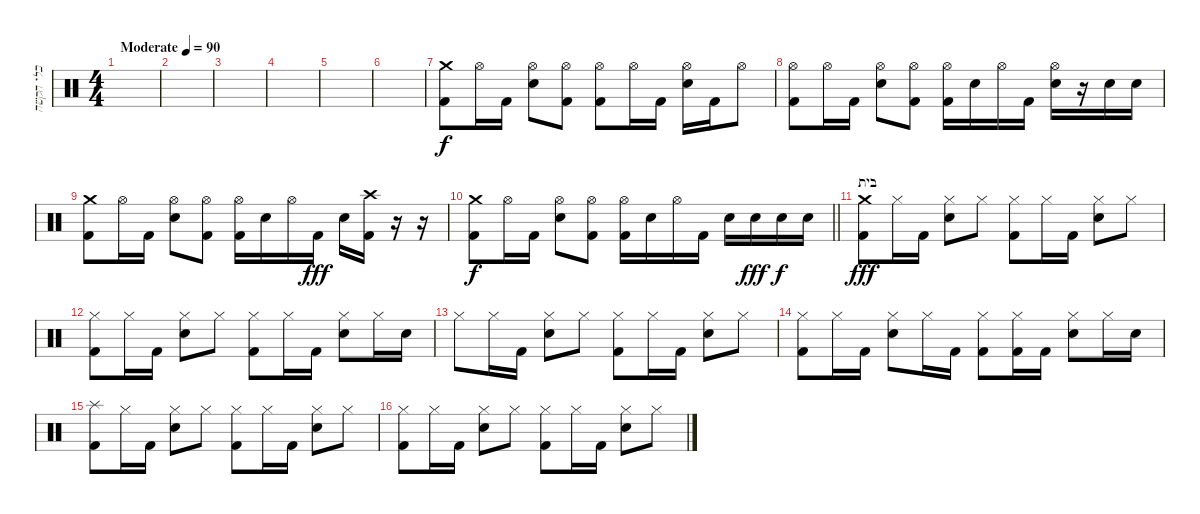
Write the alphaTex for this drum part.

\track ("כלי הקשה" "כלי הקשה") {instrument percussion}
\staff {score}
\articulation defaults
\ts (4 4)
\tempo (90 "Moderate")
\clef neutral
\ks c
|
|
|
|
|
|
("Crash medium (hit)" "Kick (hit) 2").8 "Hi-Hat (open)".16 "Kick (hit) 2".16 ("Hi-Hat (open)" "Electric Snare (hit)").8 ("Hi-Hat (open)" "Kick (hit) 2").8 ("Hi-Hat (open)" "Kick (hit) 2").8 "Hi-Hat (open)".16 "Kick (hit) 2".16 ("Hi-Hat (open)" "Electric Snare (hit)").16 "Kick (hit) 2".16 "Hi-Hat (open)".8 |
("Hi-Hat (open)" "Kick (hit) 2").8 "Hi-Hat (open)".16 "Kick (hit) 2".16 ("Hi-Hat (open)" "Electric Snare (hit)").8 ("Hi-Hat (open)" "Kick (hit) 2").8 ("Hi-Hat (open)" "Kick (hit) 2").16 "Electric Snare (hit)".16 "Hi-Hat (open)".16 "Kick (hit) 2".16 ("Hi-Hat (open)" "Electric Snare (hit)").16 r.16 "Electric Snare (hit)".16 "Electric Snare (hit)".16 |
("Crash medium (hit)" "Kick (hit) 2").8 "Hi-Hat (open)".16 "Kick (hit) 2".16 ("Hi-Hat (open)" "Electric Snare (hit)").8 ("Hi-Hat (open)" "Kick (hit) 2").8 ("Hi-Hat (open)" "Kick (hit) 2").16 "Electric Snare (hit)".16 "Hi-Hat (open)".16 "Kick (hit) 2".16{dy fff} "Electric Snare (hit)".16 ("Crash high (hit)" "Kick (hit) 2").16 r.16 r.16 |
\barLineRight lightlight
("Crash medium (hit)" "Kick (hit) 2").8{dy f} "Hi-Hat (open)".16 "Kick (hit) 2".16 ("Hi-Hat (open)" "Electric Snare (hit)").8 ("Hi-Hat (open)" "Kick (hit) 2").8 ("Hi-Hat (open)" "Kick (hit) 2").16 "Electric Snare (hit)".16 "Hi-Hat (open)".16 "Kick (hit) 2".16 "Electric Snare (hit)".16 "Electric Snare (hit)".16{dy fff} "Electric Snare (hit)".16{dy f} "Electric Snare (hit)".16 |
\section ("" "בית")
("Crash medium (hit)" "Kick (hit) 2").8{dy fff} "Hi-Hat (closed)".16 "Kick (hit) 2".16 ("Hi-Hat (closed)" "Electric Snare (hit)").8 "Hi-Hat (closed)".8 ("Hi-Hat (closed)" "Kick (hit) 2").8 "Hi-Hat (closed)".16 "Kick (hit) 2".16 ("Hi-Hat (closed)" "Electric Snare (hit)").8 "Hi-Hat (closed)".8 |
("Hi-Hat (closed)" "Kick (hit) 2").8 "Hi-Hat (closed)".16 "Kick (hit) 2".16 ("Hi-Hat (closed)" "Electric Snare (hit)").8 "Hi-Hat (closed)".8 ("Hi-Hat (closed)" "Kick (hit) 2").8 "Hi-Hat (closed)".16 "Kick (hit) 2".16 ("Hi-Hat (closed)" "Electric Snare (hit)").8 "Hi-Hat (closed)".16 "Electric Snare (hit)".16 |
"Hi-Hat (closed)".8 "Hi-Hat (closed)".16 "Kick (hit) 2".16 ("Hi-Hat (closed)" "Electric Snare (hit)").8 "Hi-Hat (closed)".8 ("Hi-Hat (closed)" "Kick (hit) 2").8 "Hi-Hat (closed)".16 "Kick (hit) 2".16 ("Hi-Hat (closed)" "Electric Snare (hit)").8 "Hi-Hat (closed)".8 |
("Hi-Hat (closed)" "Kick (hit) 2").8 "Hi-Hat (closed)".16 "Kick (hit) 2".16 ("Hi-Hat (closed)" "Electric Snare (hit)").8 "Hi-Hat (closed)".16 "Kick (hit) 2".16 ("Hi-Hat (closed)" "Kick (hit) 2").8 ("Hi-Hat (closed)" "Kick (hit) 2").16 "Kick (hit) 2".16 ("Hi-Hat (closed)" "Electric Snare (hit)").8 "Hi-Hat (closed)".16 "Electric Snare (hit)".16 |
("Splash (hit)" "Kick (hit) 2").8 "Hi-Hat (closed)".16 "Kick (hit) 2".16 ("Hi-Hat (closed)" "Electric Snare (hit)").8 "Hi-Hat (closed)".8 ("Hi-Hat (closed)" "Kick (hit) 2").8 "Hi-Hat (closed)".16 "Kick (hit) 2".16 ("Hi-Hat (closed)" "Electric Snare (hit)").8 "Hi-Hat (closed)".8 |
("Hi-Hat (closed)" "Kick (hit) 2").8 "Hi-Hat (closed)".16 "Kick (hit) 2".16 ("Hi-Hat (closed)" "Electric Snare (hit)").8 "Hi-Hat (closed)".8 ("Hi-Hat (closed)" "Kick (hit) 2").8 "Hi-Hat (closed)".16 "Kick (hit) 2".16 ("Hi-Hat (closed)" "Electric Snare (hit)").8 "Hi-Hat (closed)".8
